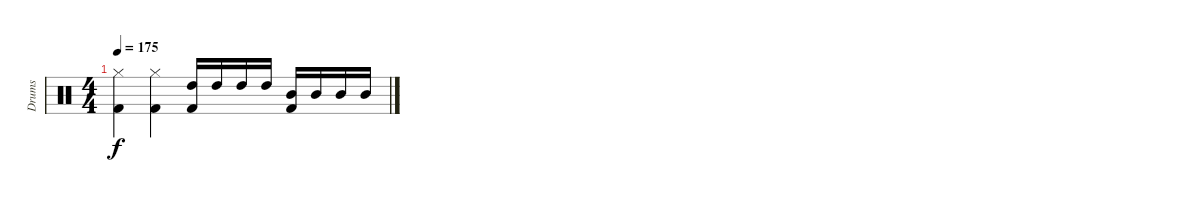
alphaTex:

\track ("Drums" "Drums") {instrument percussion}
\staff {score}
\articulation defaults
\ts (4 4)
\tempo 175
\clef neutral
\ks c
("Hi-Hat (closed)" "Kick (hit) 2").4{dy f} ("Hi-Hat (closed)" "Kick (hit) 2").4 ("High Tom (hit)" "Kick (hit) 2").16 "High Tom (hit)".16 "High Tom (hit)".16 "High Tom (hit)".16 ("Mid Tom (hit)" "Kick (hit) 2").16 "Mid Tom (hit)".16 "Mid Tom (hit)".16 "Mid Tom (hit)".16
